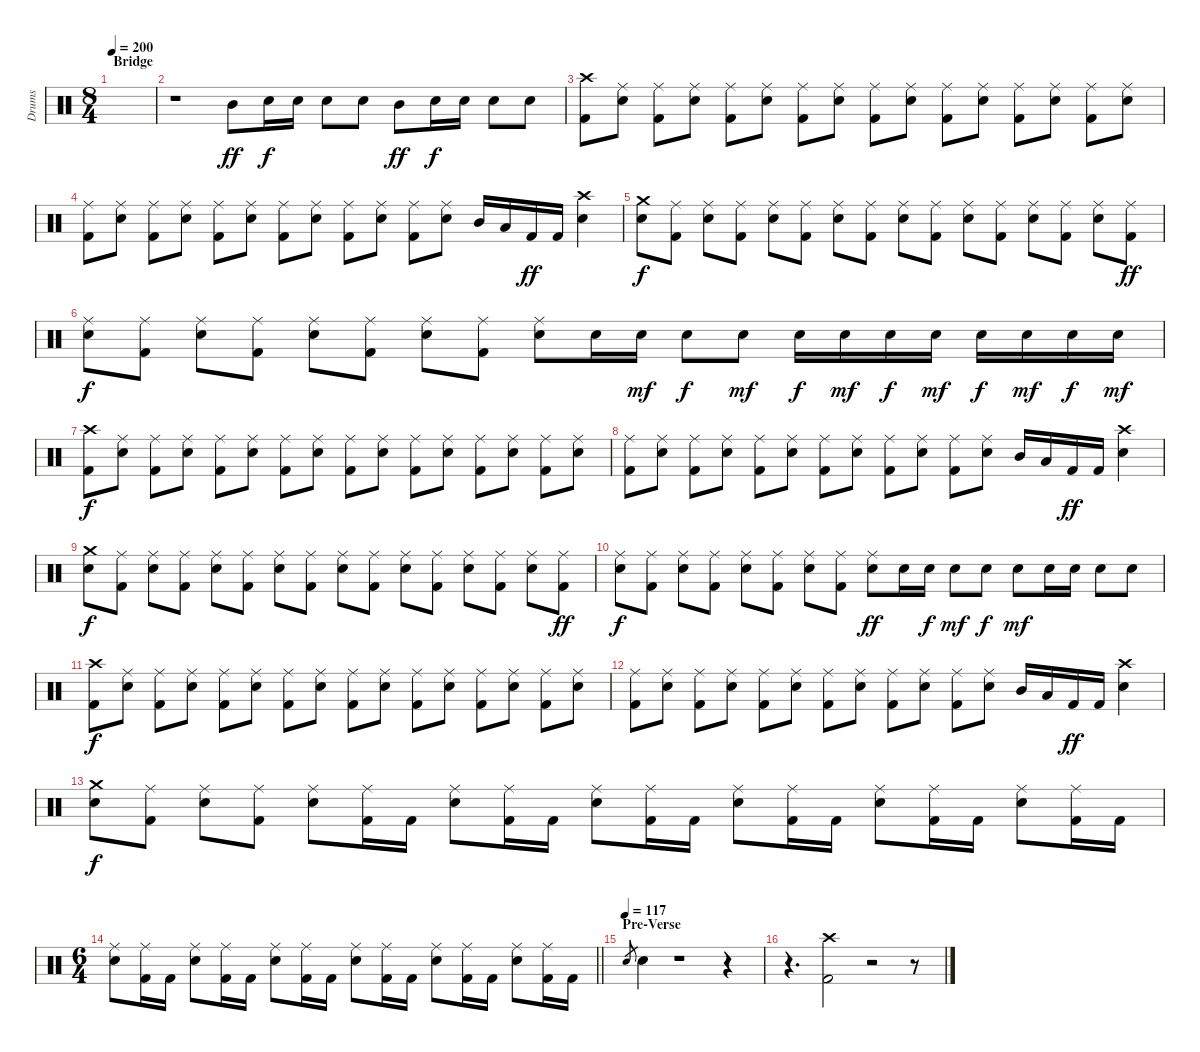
\track ("Drums" "Drums") {instrument percussion}
\staff {score}
\articulation defaults
\ts (8 4)
\section ("" "Bridge")
\tempo 200
\clef neutral
\ks c
|
r.1 "Mid Tom (hit)".8{dy ff} "Snare (hit) 2".16{dy f} "Snare (hit) 2".16 "Snare (hit) 2".8 "Snare (hit) 2".8 "Mid Tom (hit)".8{dy ff} "Snare (hit) 2".16{dy f} "Snare (hit) 2".16 "Snare (hit) 2".8 "Snare (hit) 2".8 |
("Crash high (hit)" "Kick (hit) 2").8 ("Ride (middle)" "Snare (hit) 2").8 ("Ride (middle)" "Kick (hit) 2").8 ("Ride (middle)" "Snare (hit) 2").8 ("Ride (middle)" "Kick (hit) 2").8 ("Ride (middle)" "Snare (hit) 2").8 ("Ride (middle)" "Kick (hit) 2").8 ("Ride (middle)" "Snare (hit) 2").8 ("Ride (middle)" "Kick (hit) 2").8 ("Ride (middle)" "Snare (hit) 2").8 ("Ride (middle)" "Kick (hit) 2").8 ("Ride (middle)" "Snare (hit) 2").8 ("Ride (middle)" "Kick (hit) 2").8 ("Ride (middle)" "Snare (hit) 2").8 ("Ride (middle)" "Kick (hit) 2").8 ("Ride (middle)" "Snare (hit) 2").8 |
("Ride (middle)" "Kick (hit) 2").8 ("Ride (middle)" "Snare (hit) 2").8 ("Ride (middle)" "Kick (hit) 2").8 ("Ride (middle)" "Snare (hit) 2").8 ("Ride (middle)" "Kick (hit) 2").8 ("Ride (middle)" "Snare (hit) 2").8 ("Ride (middle)" "Kick (hit) 2").8 ("Ride (middle)" "Snare (hit) 2").8 ("Ride (middle)" "Kick (hit) 2").8 ("Ride (middle)" "Snare (hit) 2").8 ("Ride (middle)" "Kick (hit) 2").8 ("Ride (middle)" "Snare (hit) 2").8 "Mid Tom (hit)".16 "Low Tom (hit)".16 "Kick (hit) 2".16{dy ff} "Kick (hit) 2".16 ("Crash high (hit)" "Snare (hit) 2").4 |
("Crash medium (hit)" "Snare (hit) 2").8{dy f} ("Ride (middle)" "Kick (hit) 2").8 ("Ride (middle)" "Snare (hit) 2").8 ("Ride (middle)" "Kick (hit) 2").8 ("Ride (middle)" "Snare (hit) 2").8 ("Ride (middle)" "Kick (hit) 2").8 ("Ride (middle)" "Snare (hit) 2").8 ("Ride (middle)" "Kick (hit) 2").8 ("Ride (middle)" "Snare (hit) 2").8 ("Ride (middle)" "Kick (hit) 2").8 ("Ride (middle)" "Snare (hit) 2").8 ("Ride (middle)" "Kick (hit) 2").8 ("Ride (middle)" "Snare (hit) 2").8 ("Ride (middle)" "Kick (hit) 2").8 ("Ride (middle)" "Snare (hit) 2").8 ("Ride (middle)" "Kick (hit) 2").8{dy ff} |
("Ride (middle)" "Snare (hit) 2").8{dy f} ("Ride (middle)" "Kick (hit) 2").8 ("Ride (middle)" "Snare (hit) 2").8 ("Ride (middle)" "Kick (hit) 2").8 ("Ride (middle)" "Snare (hit) 2").8 ("Ride (middle)" "Kick (hit) 2").8 ("Ride (middle)" "Snare (hit) 2").8 ("Ride (middle)" "Kick (hit) 2").8 ("Ride (middle)" "Snare (hit) 2").8 "Snare (hit) 2".16 "Snare (hit) 2".16{dy mf} "Snare (hit) 2".8{dy f} "Snare (hit) 2".8{dy mf} "Snare (hit) 2".16{dy f} "Snare (hit) 2".16{dy mf} "Snare (hit) 2".16{dy f} "Snare (hit) 2".16{dy mf} "Snare (hit) 2".16{dy f} "Snare (hit) 2".16{dy mf} "Snare (hit) 2".16{dy f} "Snare (hit) 2".16{dy mf} |
("Crash high (hit)" "Kick (hit) 2").8{dy f} ("Ride (middle)" "Snare (hit) 2").8 ("Ride (middle)" "Kick (hit) 2").8 ("Ride (middle)" "Snare (hit) 2").8 ("Ride (middle)" "Kick (hit) 2").8 ("Ride (middle)" "Snare (hit) 2").8 ("Ride (middle)" "Kick (hit) 2").8 ("Ride (middle)" "Snare (hit) 2").8 ("Ride (middle)" "Kick (hit) 2").8 ("Ride (middle)" "Snare (hit) 2").8 ("Ride (middle)" "Kick (hit) 2").8 ("Ride (middle)" "Snare (hit) 2").8 ("Ride (middle)" "Kick (hit) 2").8 ("Ride (middle)" "Snare (hit) 2").8 ("Ride (middle)" "Kick (hit) 2").8 ("Ride (middle)" "Snare (hit) 2").8 |
("Ride (middle)" "Kick (hit) 2").8 ("Ride (middle)" "Snare (hit) 2").8 ("Ride (middle)" "Kick (hit) 2").8 ("Ride (middle)" "Snare (hit) 2").8 ("Ride (middle)" "Kick (hit) 2").8 ("Ride (middle)" "Snare (hit) 2").8 ("Ride (middle)" "Kick (hit) 2").8 ("Ride (middle)" "Snare (hit) 2").8 ("Ride (middle)" "Kick (hit) 2").8 ("Ride (middle)" "Snare (hit) 2").8 ("Ride (middle)" "Kick (hit) 2").8 ("Ride (middle)" "Snare (hit) 2").8 "Mid Tom (hit)".16 "Low Tom (hit)".16 "Kick (hit) 2".16{dy ff} "Kick (hit) 2".16 ("Crash high (hit)" "Snare (hit) 2").4 |
("Crash medium (hit)" "Snare (hit) 2").8{dy f} ("Ride (middle)" "Kick (hit) 2").8 ("Ride (middle)" "Snare (hit) 2").8 ("Ride (middle)" "Kick (hit) 2").8 ("Ride (middle)" "Snare (hit) 2").8 ("Ride (middle)" "Kick (hit) 2").8 ("Ride (middle)" "Snare (hit) 2").8 ("Ride (middle)" "Kick (hit) 2").8 ("Ride (middle)" "Snare (hit) 2").8 ("Ride (middle)" "Kick (hit) 2").8 ("Ride (middle)" "Snare (hit) 2").8 ("Ride (middle)" "Kick (hit) 2").8 ("Ride (middle)" "Snare (hit) 2").8 ("Ride (middle)" "Kick (hit) 2").8 ("Ride (middle)" "Snare (hit) 2").8 ("Ride (middle)" "Kick (hit) 2").8{dy ff} |
("Ride (middle)" "Snare (hit) 2").8{dy f} ("Ride (middle)" "Kick (hit) 2").8 ("Ride (middle)" "Snare (hit) 2").8 ("Ride (middle)" "Kick (hit) 2").8 ("Ride (middle)" "Snare (hit) 2").8 ("Ride (middle)" "Kick (hit) 2").8 ("Ride (middle)" "Snare (hit) 2").8 ("Ride (middle)" "Kick (hit) 2").8 ("Ride (middle)" "Snare (hit) 2").8{dy ff} "Snare (hit) 2".16 "Snare (hit) 2".16{dy f} "Snare (hit) 2".8{dy mf} "Snare (hit) 2".8{dy f} "Snare (hit) 2".8{dy mf} "Snare (hit) 2".16 "Snare (hit) 2".16 "Snare (hit) 2".8 "Snare (hit) 2".8 |
("Crash high (hit)" "Kick (hit) 2").8{dy f} ("Ride (middle)" "Snare (hit) 2").8 ("Ride (middle)" "Kick (hit) 2").8 ("Ride (middle)" "Snare (hit) 2").8 ("Ride (middle)" "Kick (hit) 2").8 ("Ride (middle)" "Snare (hit) 2").8 ("Ride (middle)" "Kick (hit) 2").8 ("Ride (middle)" "Snare (hit) 2").8 ("Ride (middle)" "Kick (hit) 2").8 ("Ride (middle)" "Snare (hit) 2").8 ("Ride (middle)" "Kick (hit) 2").8 ("Ride (middle)" "Snare (hit) 2").8 ("Ride (middle)" "Kick (hit) 2").8 ("Ride (middle)" "Snare (hit) 2").8 ("Ride (middle)" "Kick (hit) 2").8 ("Ride (middle)" "Snare (hit) 2").8 |
("Ride (middle)" "Kick (hit) 2").8 ("Ride (middle)" "Snare (hit) 2").8 ("Ride (middle)" "Kick (hit) 2").8 ("Ride (middle)" "Snare (hit) 2").8 ("Ride (middle)" "Kick (hit) 2").8 ("Ride (middle)" "Snare (hit) 2").8 ("Ride (middle)" "Kick (hit) 2").8 ("Ride (middle)" "Snare (hit) 2").8 ("Ride (middle)" "Kick (hit) 2").8 ("Ride (middle)" "Snare (hit) 2").8 ("Ride (middle)" "Kick (hit) 2").8 ("Ride (middle)" "Snare (hit) 2").8 "Mid Tom (hit)".16 "Low Tom (hit)".16 "Kick (hit) 2".16{dy ff} "Kick (hit) 2".16 ("Crash high (hit)" "Snare (hit) 2").4 |
("Crash medium (hit)" "Snare (hit) 2").8{dy f} ("Ride (middle)" "Kick (hit) 2").8 ("Ride (middle)" "Snare (hit) 2").8 ("Ride (middle)" "Kick (hit) 2").8 ("Ride (middle)" "Snare (hit) 2").8 ("Ride (middle)" "Kick (hit) 2").16 "Kick (hit) 2".16 ("Ride (middle)" "Snare (hit) 2").8 ("Ride (middle)" "Kick (hit) 2").16 "Kick (hit) 2".16 ("Ride (middle)" "Snare (hit) 2").8 ("Ride (middle)" "Kick (hit) 2").16 "Kick (hit) 2".16 ("Ride (middle)" "Snare (hit) 2").8 ("Ride (middle)" "Kick (hit) 2").16 "Kick (hit) 2".16 ("Ride (middle)" "Snare (hit) 2").8 ("Ride (middle)" "Kick (hit) 2").16 "Kick (hit) 2".16 ("Ride (middle)" "Snare (hit) 2").8 ("Ride (middle)" "Kick (hit) 2").16 "Kick (hit) 2".16 |
\ts (6 4)
\barLineRight lightlight
("Ride (middle)" "Snare (hit) 2").8 ("Ride (middle)" "Kick (hit) 2").16 "Kick (hit) 2".16 ("Ride (middle)" "Snare (hit) 2").8 ("Ride (middle)" "Kick (hit) 2").16 "Kick (hit) 2".16 ("Ride (middle)" "Snare (hit) 2").8 ("Ride (middle)" "Kick (hit) 2").16 "Kick (hit) 2".16 ("Ride (middle)" "Snare (hit) 2").8 ("Ride (middle)" "Kick (hit) 2").16 "Kick (hit) 2".16 ("Ride (middle)" "Snare (hit) 2").8 ("Ride (middle)" "Kick (hit) 2").16 "Kick (hit) 2".16 ("Ride (middle)" "Snare (hit) 2").8 ("Ride (middle)" "Kick (hit) 2").16 "Kick (hit) 2".16 |
\section ("" "Pre-Verse")
\tempo (117)
"Snare (hit) 2".8{gr} "Snare (hit) 2".4 r.1 r.4 |
r.4{d} ("Crash high (hit)" "Kick (hit) 2").2 r.2 r.8
